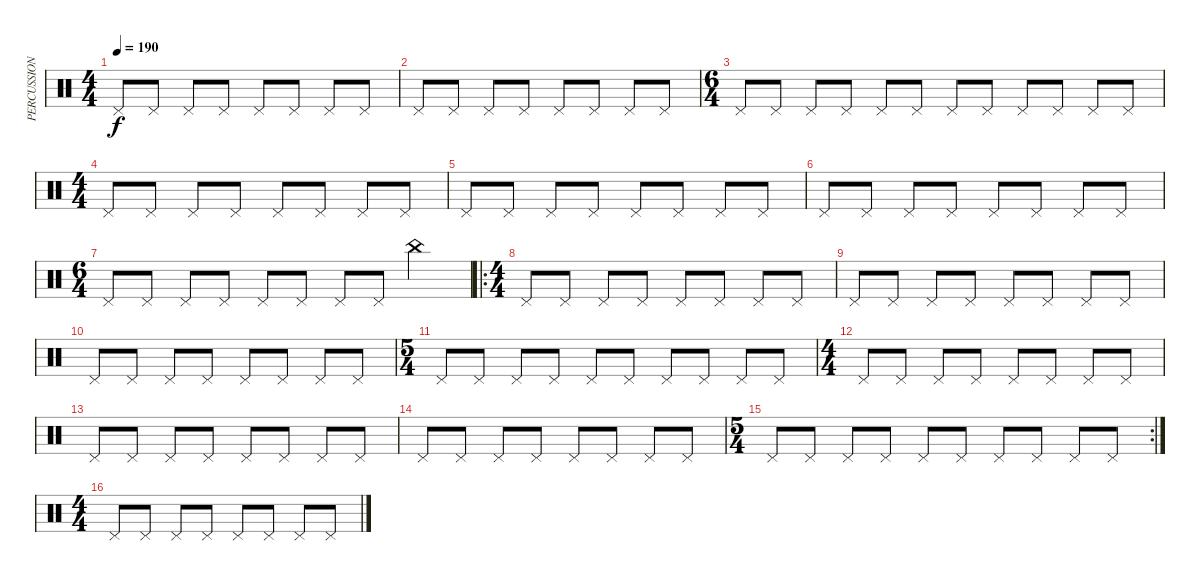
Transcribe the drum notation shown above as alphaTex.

\track ("PERCUSSION" "PERCUSSION") {instrument percussion}
\staff {score}
\articulation defaults
\ts (4 4)
\tempo 190
\clef neutral
\ks c "Pedal Hi-Hat (hit)".8{dy f} "Pedal Hi-Hat (hit)".8 "Pedal Hi-Hat (hit)".8 "Pedal Hi-Hat (hit)".8 "Pedal Hi-Hat (hit)".8 "Pedal Hi-Hat (hit)".8 "Pedal Hi-Hat (hit)".8 "Pedal Hi-Hat (hit)".8
|
"Pedal Hi-Hat (hit)".8 "Pedal Hi-Hat (hit)".8 "Pedal Hi-Hat (hit)".8 "Pedal Hi-Hat (hit)".8 "Pedal Hi-Hat (hit)".8 "Pedal Hi-Hat (hit)".8 "Pedal Hi-Hat (hit)".8 "Pedal Hi-Hat (hit)".8 |
\ts (6 4)
"Pedal Hi-Hat (hit)".8 "Pedal Hi-Hat (hit)".8 "Pedal Hi-Hat (hit)".8 "Pedal Hi-Hat (hit)".8 "Pedal Hi-Hat (hit)".8 "Pedal Hi-Hat (hit)".8 "Pedal Hi-Hat (hit)".8 "Pedal Hi-Hat (hit)".8 "Pedal Hi-Hat (hit)".8 "Pedal Hi-Hat (hit)".8 "Pedal Hi-Hat (hit)".8 "Pedal Hi-Hat (hit)".8 |
\ts (4 4)
"Pedal Hi-Hat (hit)".8 "Pedal Hi-Hat (hit)".8 "Pedal Hi-Hat (hit)".8 "Pedal Hi-Hat (hit)".8 "Pedal Hi-Hat (hit)".8 "Pedal Hi-Hat (hit)".8 "Pedal Hi-Hat (hit)".8 "Pedal Hi-Hat (hit)".8 |
"Pedal Hi-Hat (hit)".8 "Pedal Hi-Hat (hit)".8 "Pedal Hi-Hat (hit)".8 "Pedal Hi-Hat (hit)".8 "Pedal Hi-Hat (hit)".8 "Pedal Hi-Hat (hit)".8 "Pedal Hi-Hat (hit)".8 "Pedal Hi-Hat (hit)".8 |
"Pedal Hi-Hat (hit)".8 "Pedal Hi-Hat (hit)".8 "Pedal Hi-Hat (hit)".8 "Pedal Hi-Hat (hit)".8 "Pedal Hi-Hat (hit)".8 "Pedal Hi-Hat (hit)".8 "Pedal Hi-Hat (hit)".8 "Pedal Hi-Hat (hit)".8 |
\ts (6 4)
"Pedal Hi-Hat (hit)".8 "Pedal Hi-Hat (hit)".8 "Pedal Hi-Hat (hit)".8 "Pedal Hi-Hat (hit)".8 "Pedal Hi-Hat (hit)".8 "Pedal Hi-Hat (hit)".8 "Pedal Hi-Hat (hit)".8 "Pedal Hi-Hat (hit)".8 "China (hit)".2 |
\ro
\ts (4 4)
"Pedal Hi-Hat (hit)".8 "Pedal Hi-Hat (hit)".8 "Pedal Hi-Hat (hit)".8 "Pedal Hi-Hat (hit)".8 "Pedal Hi-Hat (hit)".8 "Pedal Hi-Hat (hit)".8 "Pedal Hi-Hat (hit)".8 "Pedal Hi-Hat (hit)".8 |
"Pedal Hi-Hat (hit)".8 "Pedal Hi-Hat (hit)".8 "Pedal Hi-Hat (hit)".8 "Pedal Hi-Hat (hit)".8 "Pedal Hi-Hat (hit)".8 "Pedal Hi-Hat (hit)".8 "Pedal Hi-Hat (hit)".8 "Pedal Hi-Hat (hit)".8 |
"Pedal Hi-Hat (hit)".8 "Pedal Hi-Hat (hit)".8 "Pedal Hi-Hat (hit)".8 "Pedal Hi-Hat (hit)".8 "Pedal Hi-Hat (hit)".8 "Pedal Hi-Hat (hit)".8 "Pedal Hi-Hat (hit)".8 "Pedal Hi-Hat (hit)".8 |
\ts (5 4)
"Pedal Hi-Hat (hit)".8 "Pedal Hi-Hat (hit)".8 "Pedal Hi-Hat (hit)".8 "Pedal Hi-Hat (hit)".8 "Pedal Hi-Hat (hit)".8 "Pedal Hi-Hat (hit)".8 "Pedal Hi-Hat (hit)".8 "Pedal Hi-Hat (hit)".8 "Pedal Hi-Hat (hit)".8 "Pedal Hi-Hat (hit)".8 |
\ts (4 4)
"Pedal Hi-Hat (hit)".8 "Pedal Hi-Hat (hit)".8 "Pedal Hi-Hat (hit)".8 "Pedal Hi-Hat (hit)".8 "Pedal Hi-Hat (hit)".8 "Pedal Hi-Hat (hit)".8 "Pedal Hi-Hat (hit)".8 "Pedal Hi-Hat (hit)".8 |
"Pedal Hi-Hat (hit)".8 "Pedal Hi-Hat (hit)".8 "Pedal Hi-Hat (hit)".8 "Pedal Hi-Hat (hit)".8 "Pedal Hi-Hat (hit)".8 "Pedal Hi-Hat (hit)".8 "Pedal Hi-Hat (hit)".8 "Pedal Hi-Hat (hit)".8 |
"Pedal Hi-Hat (hit)".8 "Pedal Hi-Hat (hit)".8 "Pedal Hi-Hat (hit)".8 "Pedal Hi-Hat (hit)".8 "Pedal Hi-Hat (hit)".8 "Pedal Hi-Hat (hit)".8 "Pedal Hi-Hat (hit)".8 "Pedal Hi-Hat (hit)".8 |
\rc 2
\ts (5 4)
"Pedal Hi-Hat (hit)".8 "Pedal Hi-Hat (hit)".8 "Pedal Hi-Hat (hit)".8 "Pedal Hi-Hat (hit)".8 "Pedal Hi-Hat (hit)".8 "Pedal Hi-Hat (hit)".8 "Pedal Hi-Hat (hit)".8 "Pedal Hi-Hat (hit)".8 "Pedal Hi-Hat (hit)".8 "Pedal Hi-Hat (hit)".8 |
\ts (4 4)
"Pedal Hi-Hat (hit)".8 "Pedal Hi-Hat (hit)".8 "Pedal Hi-Hat (hit)".8 "Pedal Hi-Hat (hit)".8 "Pedal Hi-Hat (hit)".8 "Pedal Hi-Hat (hit)".8 "Pedal Hi-Hat (hit)".8 "Pedal Hi-Hat (hit)".8
